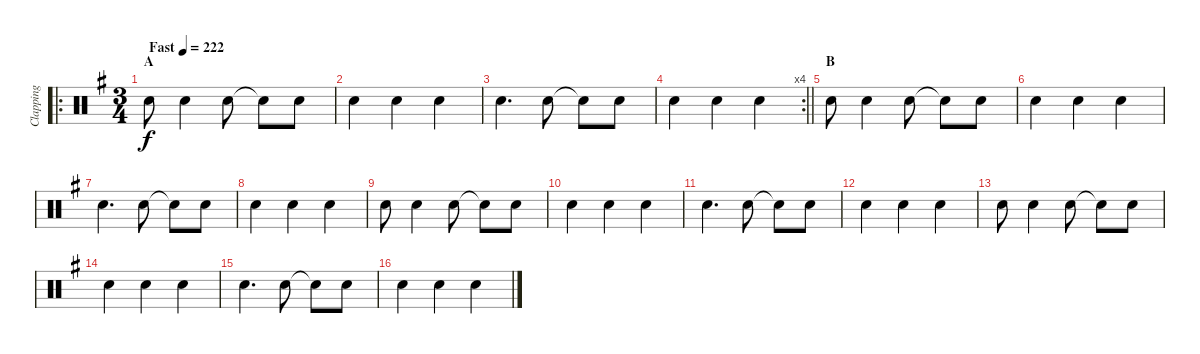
\track ("Clapping" "Clapping") {instrument percussion}
\staff {score}
\articulation defaults
\ro
\ts (3 4)
\section ("" "A")
\tempo (222 "Fast")
\clef neutral
\ks g "Hand Clap (hit)".8{dy f} "Hand Clap (hit)".4 "Hand Clap (hit)".8 "Snare (hit)"{t}.8 "Hand Clap (hit)".8
|
"Hand Clap (hit)".4 "Hand Clap (hit)".4 "Hand Clap (hit)".4 |
"Hand Clap (hit)".4{d} "Hand Clap (hit)".8 "Snare (hit)"{t}.8 "Hand Clap (hit)".8 |
\rc 4
\barLineRight lightlight "Hand Clap (hit)".4 "Hand Clap (hit)".4 "Hand Clap (hit)".4
|
\section ("" "B")
"Hand Clap (hit)".8 "Hand Clap (hit)".4 "Hand Clap (hit)".8 "Snare (hit)"{t}.8 "Hand Clap (hit)".8 |
"Hand Clap (hit)".4 "Hand Clap (hit)".4 "Hand Clap (hit)".4 |
"Hand Clap (hit)".4{d} "Hand Clap (hit)".8 "Snare (hit)"{t}.8 "Hand Clap (hit)".8 |
"Hand Clap (hit)".4 "Hand Clap (hit)".4 "Hand Clap (hit)".4 |
"Hand Clap (hit)".8 "Hand Clap (hit)".4 "Hand Clap (hit)".8 "Snare (hit)"{t}.8 "Hand Clap (hit)".8 |
"Hand Clap (hit)".4 "Hand Clap (hit)".4 "Hand Clap (hit)".4 |
"Hand Clap (hit)".4{d} "Hand Clap (hit)".8 "Snare (hit)"{t}.8 "Hand Clap (hit)".8 |
"Hand Clap (hit)".4 "Hand Clap (hit)".4 "Hand Clap (hit)".4 |
"Hand Clap (hit)".8 "Hand Clap (hit)".4 "Hand Clap (hit)".8 "Snare (hit)"{t}.8 "Hand Clap (hit)".8 |
"Hand Clap (hit)".4 "Hand Clap (hit)".4 "Hand Clap (hit)".4 |
"Hand Clap (hit)".4{d} "Hand Clap (hit)".8 "Snare (hit)"{t}.8 "Hand Clap (hit)".8 |
"Hand Clap (hit)".4 "Hand Clap (hit)".4 "Hand Clap (hit)".4
